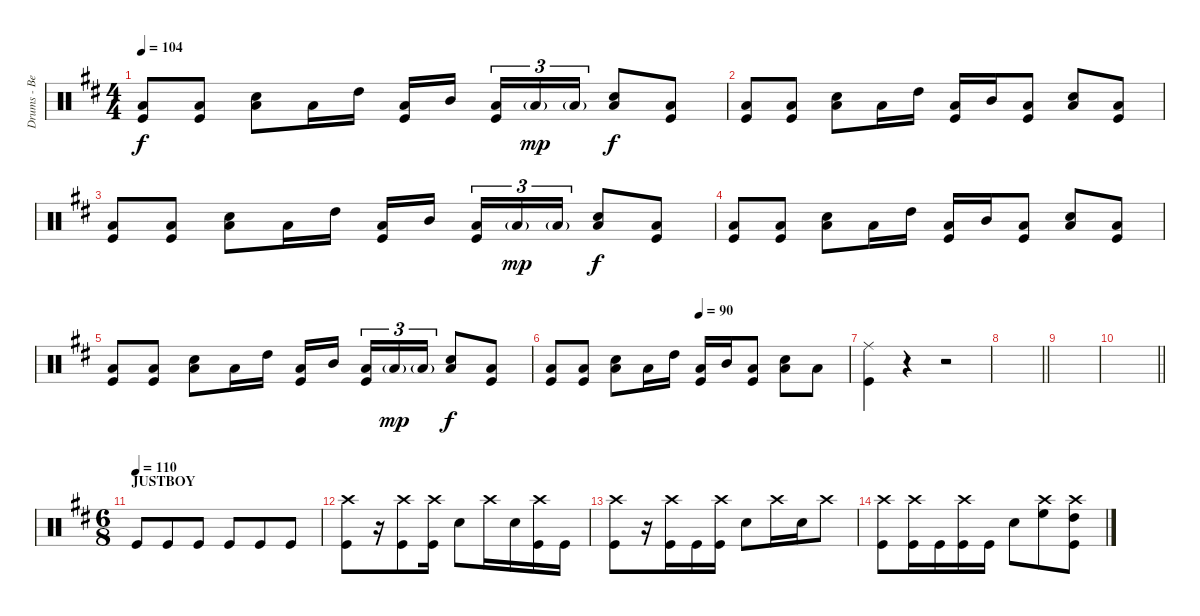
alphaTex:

\track ("Drums - Ben Johnston" "Drums - Be") {instrument percussion}
\staff {score}
\articulation defaults
\ts (4 4)
\tempo 104
\clef neutral
\ks d
("Low Tom (hit)" "Kick (hit)").8{dy f} ("Low Tom (hit)" "Kick (hit)").8 ("Low Tom (hit)" "Snare (hit) 2").8 "Low Tom (hit)".16 "High Tom (hit)".16 ("Low Tom (hit)" "Kick (hit)").16 "Mid Tom (hit)".16{beam splitsecondary} ("Low Tom (hit)" "Kick (hit)").16{tu (3 2)} "Low Tom (hit)"{g}.16{tu (3 2) dy mp} "Low Tom (hit)"{g}.16{tu (3 2)} ("Low Tom (hit)" "Snare (hit) 2").8{dy f} ("Low Tom (hit)" "Kick (hit)").8 |
("Low Tom (hit)" "Kick (hit)").8 ("Low Tom (hit)" "Kick (hit)").8 ("Low Tom (hit)" "Snare (hit) 2").8 "Low Tom (hit)".16 "High Tom (hit)".16 ("Low Tom (hit)" "Kick (hit)").16 "Mid Tom (hit)".16 ("Low Tom (hit)" "Kick (hit)").8 ("Low Tom (hit)" "Snare (hit) 2").8 ("Low Tom (hit)" "Kick (hit)").8 |
("Low Tom (hit)" "Kick (hit)").8 ("Low Tom (hit)" "Kick (hit)").8 ("Low Tom (hit)" "Snare (hit) 2").8 "Low Tom (hit)".16 "High Tom (hit)".16 ("Low Tom (hit)" "Kick (hit)").16 "Mid Tom (hit)".16{beam splitsecondary} ("Low Tom (hit)" "Kick (hit)").16{tu (3 2)} "Low Tom (hit)"{g}.16{tu (3 2) dy mp} "Low Tom (hit)"{g}.16{tu (3 2)} ("Low Tom (hit)" "Snare (hit) 2").8{dy f} ("Low Tom (hit)" "Kick (hit)").8 |
("Low Tom (hit)" "Kick (hit)").8 ("Low Tom (hit)" "Kick (hit)").8 ("Low Tom (hit)" "Snare (hit) 2").8 "Low Tom (hit)".16 "High Tom (hit)".16 ("Low Tom (hit)" "Kick (hit)").16 "Mid Tom (hit)".16 ("Low Tom (hit)" "Kick (hit)").8 ("Low Tom (hit)" "Snare (hit) 2").8 ("Low Tom (hit)" "Kick (hit)").8 |
("Low Tom (hit)" "Kick (hit)").8 ("Low Tom (hit)" "Kick (hit)").8 ("Low Tom (hit)" "Snare (hit) 2").8 "Low Tom (hit)".16 "High Tom (hit)".16 ("Low Tom (hit)" "Kick (hit)").16 "Mid Tom (hit)".16{beam splitsecondary} ("Low Tom (hit)" "Kick (hit)").16{tu (3 2)} "Low Tom (hit)"{g}.16{tu (3 2) dy mp} "Low Tom (hit)"{g}.16{tu (3 2)} ("Low Tom (hit)" "Snare (hit) 2").8{dy f} ("Low Tom (hit)" "Kick (hit)").8 |
\tempo (90 0.5)
("Low Tom (hit)" "Kick (hit)").8 ("Low Tom (hit)" "Kick (hit)").8 ("Low Tom (hit)" "Snare (hit) 2").8 "Low Tom (hit)".16 "High Tom (hit)".16 ("Low Tom (hit)" "Kick (hit)").16 "Mid Tom (hit)".16 ("Low Tom (hit)" "Kick (hit)").8 ("Low Tom (hit)" "Snare (hit) 2").8 "Low Tom (hit)".8 |
("Ride (middle)" "Kick (hit)").4 r.4 r.2 |
\barLineRight lightlight
|
|
\barLineRight lightlight
|
\ts (6 8)
\section ("" "JUSTBOY")
\tempo (110)
"Kick (hit)".8{volume 9} "Kick (hit)".8{volume 10} "Kick (hit)".8{volume 11} "Kick (hit)".8{volume 12} "Kick (hit)".8{volume 13} "Kick (hit)".8 |
("Crash high (hit)" "Kick (hit)").8 r.16 ("Crash high (hit)" "Kick (hit)").8 ("Crash high (hit)" "Kick (hit)").16 "Snare (hit) 2".8 "Crash high (hit)".16 "Snare (hit) 2".16 ("Crash high (hit)" "Kick (hit)").16 "Kick (hit)".16 |
("Crash high (hit)" "Kick (hit)").8 r.16 ("Crash high (hit)" "Kick (hit)").16 "Kick (hit)".16 ("Crash high (hit)" "Kick (hit)").16 "Snare (hit) 2".8 "Crash high (hit)".16 "Snare (hit) 2".16 "Crash high (hit)".8 |
("Crash high (hit)" "Kick (hit)").8 ("Crash high (hit)" "Kick (hit)").16 "Kick (hit)".16 ("Crash high (hit)" "Kick (hit)").16 "Kick (hit)".16 "Snare (hit) 2".8 ("Crash high (hit)" "High Floor Tom (hit)").8 ("Crash high (hit)" "High Tom (hit)" "Kick (hit)").8
